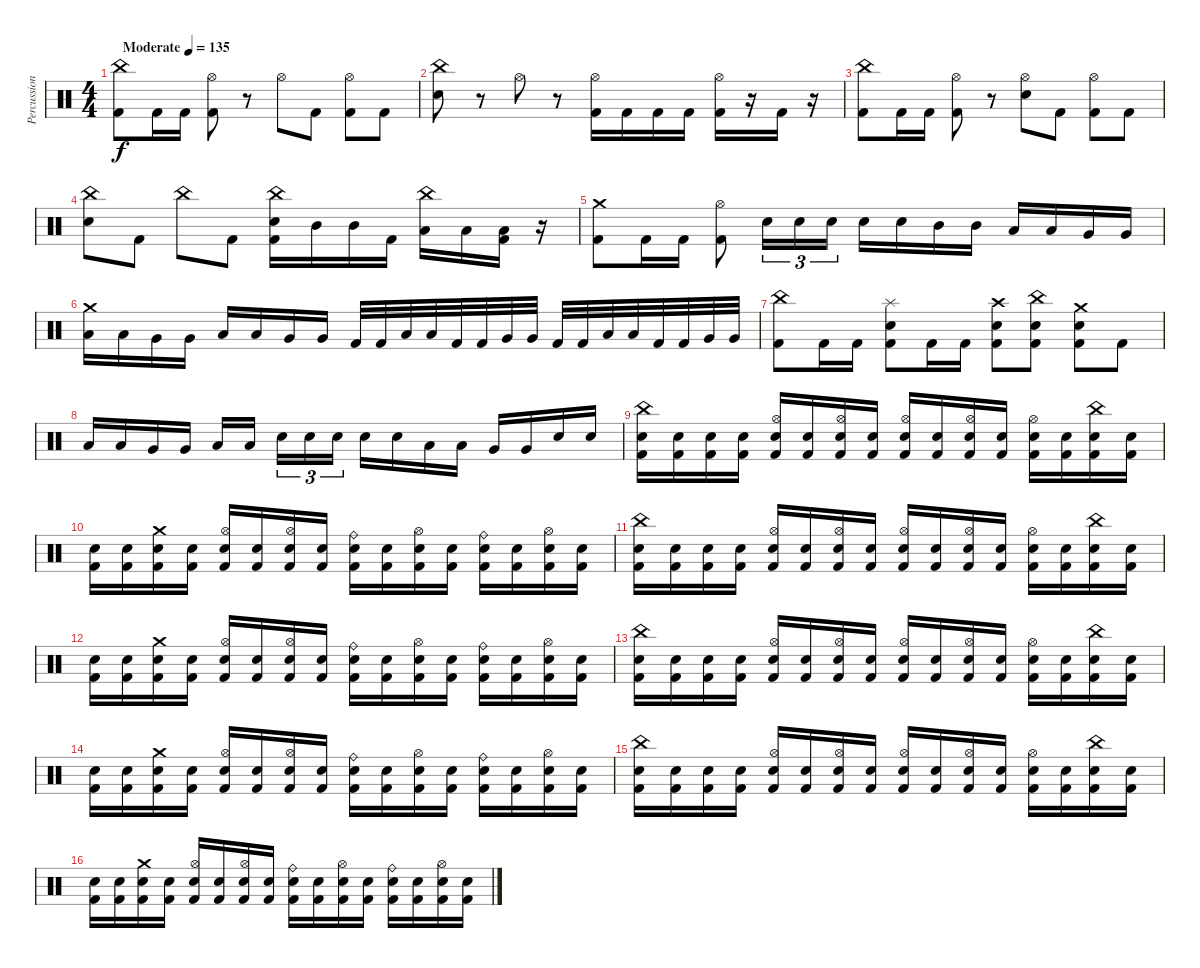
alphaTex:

\track ("Percussion" "Percussion") {instrument percussion}
\staff {score}
\articulation defaults
\ts (4 4)
\tempo (135 "Moderate")
\clef neutral
\ks c
("China (hit)" "Kick (hit) 2").8{dy f} "Kick (hit) 2".16 "Kick (hit) 2".16 ("Hi-Hat (open)" "Kick (hit) 2").8 r.8 "Hi-Hat (open)".8 "Kick (hit) 2".8 ("Hi-Hat (open)" "Kick (hit) 2").8 "Kick (hit) 2".8 |
("China (hit)" "Electric Snare (hit)").8 r.8 "Hi-Hat (open)".8 r.8 ("Hi-Hat (open)" "Kick (hit) 2").16 "Kick (hit) 2".16 "Kick (hit) 2".16 "Kick (hit) 2".16 ("Hi-Hat (open)" "Kick (hit) 2").16 r.16 "Kick (hit) 2".16 r.16 |
("China (hit)" "Kick (hit) 2").8 "Kick (hit) 2".16 "Kick (hit) 2".16 ("Hi-Hat (open)" "Kick (hit) 2").8 r.8 ("Hi-Hat (open)" "Electric Snare (hit)").8 "Kick (hit) 2".8 ("Hi-Hat (open)" "Kick (hit) 2").8 "Kick (hit) 2".8 |
("China (hit)" "Electric Snare (hit)").8 "Kick (hit) 2".8 "China (hit)".8 "Kick (hit) 2".8 ("China (hit)" "Electric Snare (hit)" "Kick (hit) 2").16 "Mid Tom (hit)".16 "Mid Tom (hit)".16 "Kick (hit) 2".16 ("China (hit)" "Low Tom (hit)").16 "Low Tom (hit)".16 ("Low Floor Tom (hit)" "Kick (hit) 2").16 r.16 |
("Crash medium (hit)" "Kick (hit) 2").8 "Kick (hit) 2".16 "Kick (hit) 2".16 ("Hi-Hat (open)" "Kick (hit) 2").8 "Electric Snare (hit)".16{tu (3 2)} "Electric Snare (hit)".16{tu (3 2)} "Electric Snare (hit)".16{tu (3 2)} "Electric Snare (hit)".16 "Electric Snare (hit)".16 "Mid Tom (hit)".16 "Mid Tom (hit)".16 "Low Tom (hit)".16 "Low Tom (hit)".16 "Very Low Tom (hit)".16 "Very Low Tom (hit)".16 |
("Crash medium (hit)" "Low Tom (hit)").16 "Low Tom (hit)".16 "Very Low Tom (hit)".16 "Very Low Tom (hit)".16 "Low Tom (hit)".16 "Low Tom (hit)".16 "Very Low Tom (hit)".16 "Very Low Tom (hit)".16 "Kick (hit) 2".32 "Kick (hit) 2".32 "Low Tom (hit)".32 "Low Tom (hit)".32 "Kick (hit) 2".32 "Kick (hit) 2".32 "Very Low Tom (hit)".32 "Very Low Tom (hit)".32 "Kick (hit) 2".32 "Kick (hit) 2".32 "Low Floor Tom (hit)".32 "Low Floor Tom (hit)".32 "Kick (hit) 2".32 "Kick (hit) 2".32 "Very Low Tom (hit)".32 "Very Low Tom (hit)".32 |
("China (hit)" "Kick (hit) 2").8 "Kick (hit) 2".16 "Kick (hit) 2".16 ("Splash (hit)" "Electric Snare (hit)" "Kick (hit) 2").8 "Kick (hit) 2".16 "Kick (hit) 2".16 ("Crash high (hit)" "Electric Snare (hit)" "Kick (hit) 2").8 ("China (hit)" "Electric Snare (hit)" "Kick (hit) 2").8 ("Crash medium (hit)" "Electric Snare (hit)" "Kick (hit) 2").8 "Kick (hit) 2".8 |
"Low Tom (hit)".16 "Low Tom (hit)".16 "Very Low Tom (hit)".16 "Very Low Tom (hit)".16 "Low Tom (hit)".16 "Low Tom (hit)".16{beam splitsecondary} "Electric Snare (hit)".16{tu (3 2)} "Electric Snare (hit)".16{tu (3 2)} "Electric Snare (hit)".16{tu (3 2)} "Electric Snare (hit)".16 "Electric Snare (hit)".16 "Low Tom (hit)".16 "Low Tom (hit)".16 "Very Low Tom (hit)".16 "Very Low Tom (hit)".16 "Electric Snare (hit)".16 "Electric Snare (hit)".16 |
("China (hit)" "Electric Snare (hit)" "Kick (hit) 2").16 ("Electric Snare (hit)" "Kick (hit) 2").16 ("Electric Snare (hit)" "Kick (hit) 2").16 ("Electric Snare (hit)" "Kick (hit) 2").16 ("Hi-Hat (open)" "Electric Snare (hit)" "Kick (hit) 2").16 ("Electric Snare (hit)" "Kick (hit) 2").16 ("Hi-Hat (open)" "Electric Snare (hit)" "Kick (hit) 2").16 ("Electric Snare (hit)" "Kick (hit) 2").16 ("Hi-Hat (open)" "Electric Snare (hit)" "Kick (hit) 2").16 ("Electric Snare (hit)" "Kick (hit) 2").16 ("Hi-Hat (open)" "Electric Snare (hit)" "Kick (hit) 2").16 ("Electric Snare (hit)" "Kick (hit) 2").16 ("Hi-Hat (open)" "Electric Snare (hit)" "Kick (hit) 2").16 ("Electric Snare (hit)" "Kick (hit) 2").16 ("China (hit)" "Electric Snare (hit)" "Kick (hit) 2").16 ("Electric Snare (hit)" "Kick (hit) 2").16 |
("Electric Snare (hit)" "Kick (hit) 2").16 ("Electric Snare (hit)" "Kick (hit) 2").16 ("Crash medium (hit)" "Electric Snare (hit)" "Kick (hit) 2").16 ("Electric Snare (hit)" "Kick (hit) 2").16 ("Hi-Hat (open)" "Electric Snare (hit)" "Kick (hit) 2").16 ("Electric Snare (hit)" "Kick (hit) 2").16 ("Hi-Hat (open)" "Electric Snare (hit)" "Kick (hit) 2").16 ("Electric Snare (hit)" "Kick (hit) 2").16 ("Ride (bell)" "Electric Snare (hit)" "Kick (hit) 2").16 ("Electric Snare (hit)" "Kick (hit) 2").16 ("Hi-Hat (open)" "Electric Snare (hit)" "Kick (hit) 2").16 ("Electric Snare (hit)" "Kick (hit) 2").16 ("Ride (bell)" "Electric Snare (hit)" "Kick (hit) 2").16 ("Electric Snare (hit)" "Kick (hit) 2").16 ("Hi-Hat (open)" "Electric Snare (hit)" "Kick (hit) 2").16 ("Electric Snare (hit)" "Kick (hit) 2").16 |
("China (hit)" "Electric Snare (hit)" "Kick (hit) 2").16 ("Electric Snare (hit)" "Kick (hit) 2").16 ("Electric Snare (hit)" "Kick (hit) 2").16 ("Electric Snare (hit)" "Kick (hit) 2").16 ("Hi-Hat (open)" "Electric Snare (hit)" "Kick (hit) 2").16 ("Electric Snare (hit)" "Kick (hit) 2").16 ("Hi-Hat (open)" "Electric Snare (hit)" "Kick (hit) 2").16 ("Electric Snare (hit)" "Kick (hit) 2").16 ("Hi-Hat (open)" "Electric Snare (hit)" "Kick (hit) 2").16 ("Electric Snare (hit)" "Kick (hit) 2").16 ("Hi-Hat (open)" "Electric Snare (hit)" "Kick (hit) 2").16 ("Electric Snare (hit)" "Kick (hit) 2").16 ("Hi-Hat (open)" "Electric Snare (hit)" "Kick (hit) 2").16 ("Electric Snare (hit)" "Kick (hit) 2").16 ("China (hit)" "Electric Snare (hit)" "Kick (hit) 2").16 ("Electric Snare (hit)" "Kick (hit) 2").16 |
("Electric Snare (hit)" "Kick (hit) 2").16 ("Electric Snare (hit)" "Kick (hit) 2").16 ("Crash medium (hit)" "Electric Snare (hit)" "Kick (hit) 2").16 ("Electric Snare (hit)" "Kick (hit) 2").16 ("Hi-Hat (open)" "Electric Snare (hit)" "Kick (hit) 2").16 ("Electric Snare (hit)" "Kick (hit) 2").16 ("Hi-Hat (open)" "Electric Snare (hit)" "Kick (hit) 2").16 ("Electric Snare (hit)" "Kick (hit) 2").16 ("Ride (bell)" "Electric Snare (hit)" "Kick (hit) 2").16 ("Electric Snare (hit)" "Kick (hit) 2").16 ("Hi-Hat (open)" "Electric Snare (hit)" "Kick (hit) 2").16 ("Electric Snare (hit)" "Kick (hit) 2").16 ("Ride (bell)" "Electric Snare (hit)" "Kick (hit) 2").16 ("Electric Snare (hit)" "Kick (hit) 2").16 ("Hi-Hat (open)" "Electric Snare (hit)" "Kick (hit) 2").16 ("Electric Snare (hit)" "Kick (hit) 2").16 |
("China (hit)" "Electric Snare (hit)" "Kick (hit) 2").16 ("Electric Snare (hit)" "Kick (hit) 2").16 ("Electric Snare (hit)" "Kick (hit) 2").16 ("Electric Snare (hit)" "Kick (hit) 2").16 ("Hi-Hat (open)" "Electric Snare (hit)" "Kick (hit) 2").16 ("Electric Snare (hit)" "Kick (hit) 2").16 ("Hi-Hat (open)" "Electric Snare (hit)" "Kick (hit) 2").16 ("Electric Snare (hit)" "Kick (hit) 2").16 ("Hi-Hat (open)" "Electric Snare (hit)" "Kick (hit) 2").16 ("Electric Snare (hit)" "Kick (hit) 2").16 ("Hi-Hat (open)" "Electric Snare (hit)" "Kick (hit) 2").16 ("Electric Snare (hit)" "Kick (hit) 2").16 ("Hi-Hat (open)" "Electric Snare (hit)" "Kick (hit) 2").16 ("Electric Snare (hit)" "Kick (hit) 2").16 ("China (hit)" "Electric Snare (hit)" "Kick (hit) 2").16 ("Electric Snare (hit)" "Kick (hit) 2").16 |
("Electric Snare (hit)" "Kick (hit) 2").16 ("Electric Snare (hit)" "Kick (hit) 2").16 ("Crash medium (hit)" "Electric Snare (hit)" "Kick (hit) 2").16 ("Electric Snare (hit)" "Kick (hit) 2").16 ("Hi-Hat (open)" "Electric Snare (hit)" "Kick (hit) 2").16 ("Electric Snare (hit)" "Kick (hit) 2").16 ("Hi-Hat (open)" "Electric Snare (hit)" "Kick (hit) 2").16 ("Electric Snare (hit)" "Kick (hit) 2").16 ("Ride (bell)" "Electric Snare (hit)" "Kick (hit) 2").16 ("Electric Snare (hit)" "Kick (hit) 2").16 ("Hi-Hat (open)" "Electric Snare (hit)" "Kick (hit) 2").16 ("Electric Snare (hit)" "Kick (hit) 2").16 ("Ride (bell)" "Electric Snare (hit)" "Kick (hit) 2").16 ("Electric Snare (hit)" "Kick (hit) 2").16 ("Hi-Hat (open)" "Electric Snare (hit)" "Kick (hit) 2").16 ("Electric Snare (hit)" "Kick (hit) 2").16 |
("China (hit)" "Electric Snare (hit)" "Kick (hit) 2").16 ("Electric Snare (hit)" "Kick (hit) 2").16 ("Electric Snare (hit)" "Kick (hit) 2").16 ("Electric Snare (hit)" "Kick (hit) 2").16 ("Hi-Hat (open)" "Electric Snare (hit)" "Kick (hit) 2").16 ("Electric Snare (hit)" "Kick (hit) 2").16 ("Hi-Hat (open)" "Electric Snare (hit)" "Kick (hit) 2").16 ("Electric Snare (hit)" "Kick (hit) 2").16 ("Hi-Hat (open)" "Electric Snare (hit)" "Kick (hit) 2").16 ("Electric Snare (hit)" "Kick (hit) 2").16 ("Hi-Hat (open)" "Electric Snare (hit)" "Kick (hit) 2").16 ("Electric Snare (hit)" "Kick (hit) 2").16 ("Hi-Hat (open)" "Electric Snare (hit)" "Kick (hit) 2").16 ("Electric Snare (hit)" "Kick (hit) 2").16 ("China (hit)" "Electric Snare (hit)" "Kick (hit) 2").16 ("Electric Snare (hit)" "Kick (hit) 2").16 |
("Electric Snare (hit)" "Kick (hit) 2").16 ("Electric Snare (hit)" "Kick (hit) 2").16 ("Crash medium (hit)" "Electric Snare (hit)" "Kick (hit) 2").16 ("Electric Snare (hit)" "Kick (hit) 2").16 ("Hi-Hat (open)" "Electric Snare (hit)" "Kick (hit) 2").16 ("Electric Snare (hit)" "Kick (hit) 2").16 ("Hi-Hat (open)" "Electric Snare (hit)" "Kick (hit) 2").16 ("Electric Snare (hit)" "Kick (hit) 2").16 ("Ride (bell)" "Electric Snare (hit)" "Kick (hit) 2").16 ("Electric Snare (hit)" "Kick (hit) 2").16 ("Hi-Hat (open)" "Electric Snare (hit)" "Kick (hit) 2").16 ("Electric Snare (hit)" "Kick (hit) 2").16 ("Ride (bell)" "Electric Snare (hit)" "Kick (hit) 2").16 ("Electric Snare (hit)" "Kick (hit) 2").16 ("Hi-Hat (open)" "Electric Snare (hit)" "Kick (hit) 2").16 ("Electric Snare (hit)" "Kick (hit) 2").16
